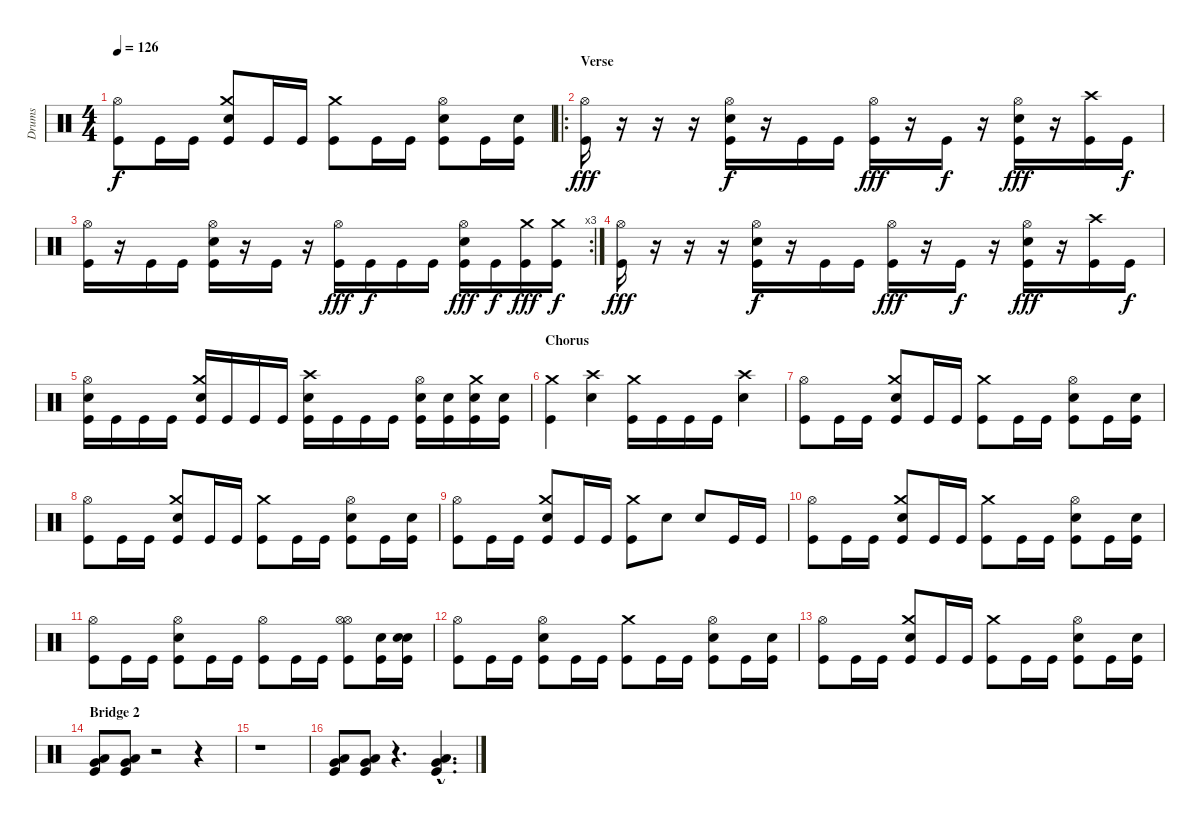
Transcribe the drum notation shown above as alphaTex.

\track ("Drums" "Drums") {instrument percussion}
\staff {score}
\articulation defaults
\ts (4 4)
\tempo 126
\clef neutral
\ks c
("Hi-Hat (open)" "Kick (hit)").8{dy f} "Kick (hit)".16 "Kick (hit)".16 ("Crash medium (hit)" "Electric Snare (hit)" "Kick (hit)").8 "Kick (hit)".16 "Kick (hit)".16 ("Crash medium (hit)" "Kick (hit)").8 "Kick (hit)".16 "Kick (hit)".16 ("Electric Snare (hit)" "Hi-Hat (open)" "Kick (hit)").8 "Kick (hit)".16 ("Electric Snare (hit)" "Kick (hit)").16 |
\ro
\section ("" "Verse")
("Hi-Hat (open)" "Kick (hit)").16{dy fff} r.16 r.16 r.16 ("Hi-Hat (open)" "Electric Snare (hit)" "Kick (hit)").16{dy f} r.16 "Kick (hit)".16 "Kick (hit)".16 ("Hi-Hat (open)" "Kick (hit)").16{dy fff} r.16 "Kick (hit)".16{dy f} r.16 ("Hi-Hat (open)" "Electric Snare (hit)" "Kick (hit)").16{dy fff} r.16 ("Crash high (hit)" "Kick (hit)").16 "Kick (hit)".16{dy f} |
\rc 3
("Hi-Hat (open)" "Kick (hit)").16 r.16 "Kick (hit)".16 "Kick (hit)".16 ("Hi-Hat (open)" "Electric Snare (hit)" "Kick (hit)").16 r.16 "Kick (hit)".16 r.16 ("Hi-Hat (open)" "Kick (hit)").16{dy fff} "Kick (hit)".16{dy f} "Kick (hit)".16 "Kick (hit)".16 ("Hi-Hat (open)" "Electric Snare (hit)" "Kick (hit)").16{dy fff} "Kick (hit)".16{dy f} ("Crash medium (hit)" "Kick (hit)").16{dy fff} ("Crash medium (hit)" "Kick (hit)").16{dy f} |
("Hi-Hat (open)" "Kick (hit)").16{dy fff} r.16 r.16 r.16 ("Hi-Hat (open)" "Electric Snare (hit)" "Kick (hit)").16{dy f} r.16 "Kick (hit)".16 "Kick (hit)".16 ("Hi-Hat (open)" "Kick (hit)").16{dy fff} r.16 "Kick (hit)".16{dy f} r.16 ("Hi-Hat (open)" "Electric Snare (hit)" "Kick (hit)").16{dy fff} r.16 ("Crash high (hit)" "Kick (hit)").16 "Kick (hit)".16{dy f} |
("Hi-Hat (open)" "Electric Snare (hit)" "Kick (hit)").16 "Kick (hit)".16 "Kick (hit)".16 "Kick (hit)".16 ("Crash medium (hit)" "Electric Snare (hit)" "Kick (hit)").16 "Kick (hit)".16 "Kick (hit)".16 "Kick (hit)".16 ("Crash high (hit)" "Electric Snare (hit)" "Kick (hit)").16 "Kick (hit)".16 "Kick (hit)".16 "Kick (hit)".16 ("Hi-Hat (open)" "Electric Snare (hit)" "Kick (hit)").16 ("Electric Snare (hit)" "Kick (hit)").16 ("Crash medium (hit)" "Electric Snare (hit)" "Kick (hit)").16 ("Electric Snare (hit)" "Kick (hit)").16 |
\section ("" "Chorus")
("Crash medium (hit)" "Kick (hit)").4 ("Crash high (hit)" "Electric Snare (hit)").4 ("Crash medium (hit)" "Kick (hit)").16 "Kick (hit)".16 "Kick (hit)".16 "Kick (hit)".16 ("Crash high (hit)" "Electric Snare (hit)").4 |
("Hi-Hat (open)" "Kick (hit)").8 "Kick (hit)".16 "Kick (hit)".16 ("Crash medium (hit)" "Electric Snare (hit)" "Kick (hit)").8 "Kick (hit)".16 "Kick (hit)".16 ("Crash medium (hit)" "Kick (hit)").8 "Kick (hit)".16 "Kick (hit)".16 ("Electric Snare (hit)" "Hi-Hat (open)" "Kick (hit)").8 "Kick (hit)".16 ("Electric Snare (hit)" "Kick (hit)").16 |
("Hi-Hat (open)" "Kick (hit)").8 "Kick (hit)".16 "Kick (hit)".16 ("Crash medium (hit)" "Electric Snare (hit)" "Kick (hit)").8 "Kick (hit)".16 "Kick (hit)".16 ("Crash medium (hit)" "Kick (hit)").8 "Kick (hit)".16 "Kick (hit)".16 ("Electric Snare (hit)" "Hi-Hat (open)" "Kick (hit)").8 "Kick (hit)".16 ("Electric Snare (hit)" "Kick (hit)").16 |
("Hi-Hat (open)" "Kick (hit)").8 "Kick (hit)".16 "Kick (hit)".16 ("Crash medium (hit)" "Electric Snare (hit)" "Kick (hit)").8 "Kick (hit)".16 "Kick (hit)".16 ("Crash medium (hit)" "Kick (hit)").8 "Electric Snare (hit)".8 "Electric Snare (hit)".8 "Kick (hit)".16 "Kick (hit)".16 |
("Hi-Hat (open)" "Kick (hit)").8 "Kick (hit)".16 "Kick (hit)".16 ("Crash medium (hit)" "Electric Snare (hit)" "Kick (hit)").8 "Kick (hit)".16 "Kick (hit)".16 ("Crash medium (hit)" "Kick (hit)").8 "Kick (hit)".16 "Kick (hit)".16 ("Electric Snare (hit)" "Hi-Hat (open)" "Kick (hit)").8 "Kick (hit)".16 ("Electric Snare (hit)" "Kick (hit)").16 |
("Hi-Hat (open)" "Kick (hit)").8 "Kick (hit)".16 "Kick (hit)".16 ("Hi-Hat (open)" "Electric Snare (hit)" "Kick (hit)").8 "Kick (hit)".16 "Kick (hit)".16 ("Hi-Hat (open)" "Kick (hit)").8 "Kick (hit)".16 "Kick (hit)".16 ("Hi-Hat (open)" "Hi-Hat (open)" "Kick (hit)").8 ("Electric Snare (hit)" "Kick (hit)").16 ("Electric Snare (hit)" "Electric Snare (hit)" "Kick (hit)").16 |
("Hi-Hat (open)" "Kick (hit)").8 "Kick (hit)".16 "Kick (hit)".16 ("Hi-Hat (open)" "Electric Snare (hit)" "Kick (hit)").8 "Kick (hit)".16 "Kick (hit)".16 ("Crash medium (hit)" "Kick (hit)").8 "Kick (hit)".16 "Kick (hit)".16 ("Electric Snare (hit)" "Hi-Hat (open)" "Kick (hit)").8 "Kick (hit)".16 ("Electric Snare (hit)" "Kick (hit)").16 |
("Hi-Hat (open)" "Kick (hit)").8 "Kick (hit)".16 "Kick (hit)".16 ("Crash medium (hit)" "Electric Snare (hit)" "Kick (hit)").8 "Kick (hit)".16 "Kick (hit)".16 ("Crash medium (hit)" "Kick (hit)").8 "Kick (hit)".16 "Kick (hit)".16 ("Electric Snare (hit)" "Hi-Hat (open)" "Kick (hit)").8 "Kick (hit)".16 ("Electric Snare (hit)" "Kick (hit)").16 |
\section ("" "Bridge 2")
("Low Tom (hit)" "Very Low Tom (hit)" "Kick (hit)").8 ("Low Tom (hit)" "Very Low Tom (hit)" "Kick (hit)").8 r.2 r.4 |
r.1 |
("Low Tom (hit)" "Very Low Tom (hit)" "Kick (hit)").8 ("Low Tom (hit)" "Very Low Tom (hit)" "Kick (hit)").8 r.4{d} ("Very Low Tom (hit)"{hac} "Low Tom (hit)"{hac} "Kick (hit)"{hac}).4{d}
